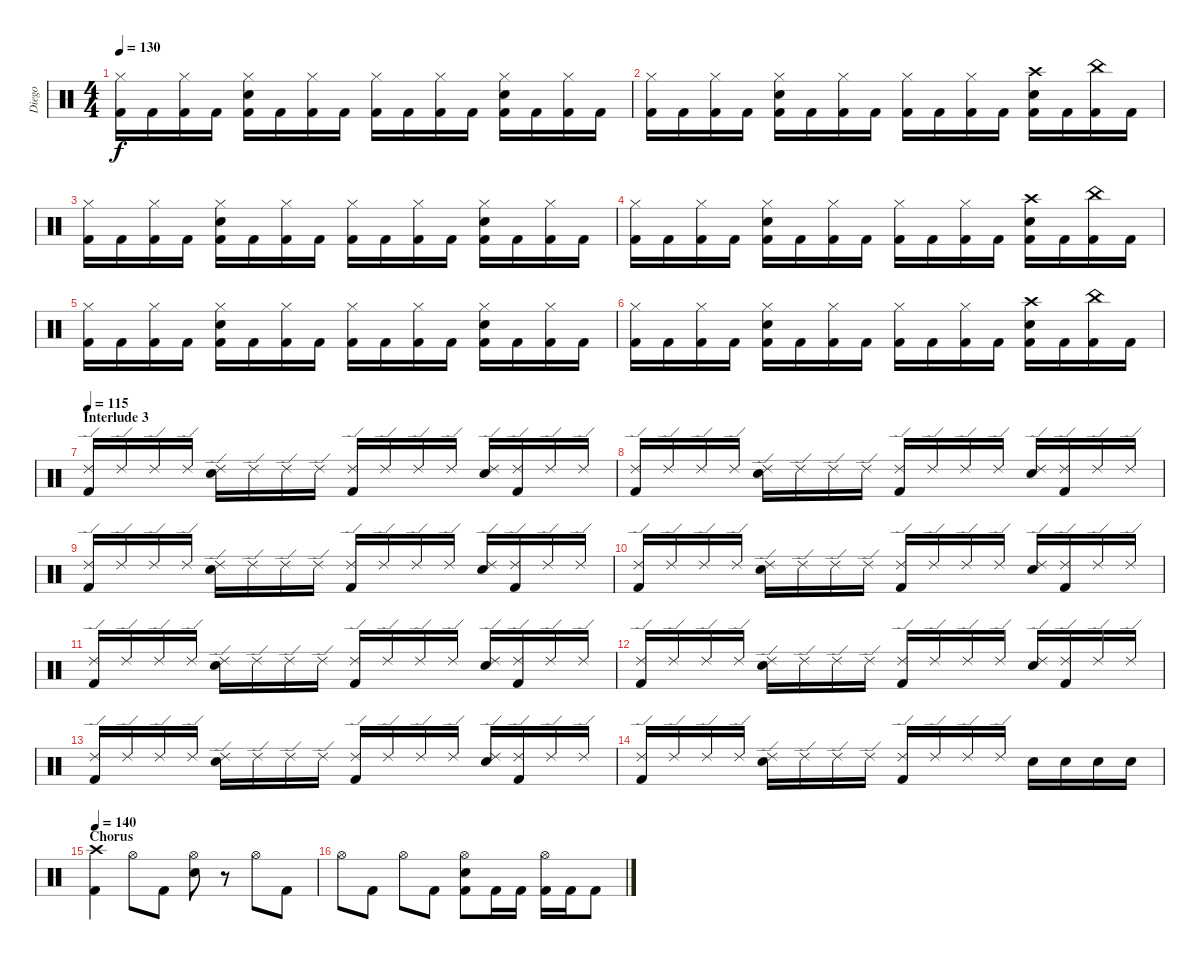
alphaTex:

\track ("Diego" "Diego") {instrument percussion}
\staff {score}
\articulation defaults
\ts (4 4)
\tempo 130
\clef neutral
\ks c
("Hi-Hat (closed)" "Kick (hit) 2").16{dy f} "Kick (hit) 2".16 ("Hi-Hat (closed)" "Kick (hit) 2").16 "Kick (hit) 2".16 ("Hi-Hat (closed)" "Snare (hit) 2" "Kick (hit) 2").16 "Kick (hit) 2".16 ("Hi-Hat (closed)" "Kick (hit) 2").16 "Kick (hit) 2".16 ("Hi-Hat (closed)" "Kick (hit) 2").16 "Kick (hit) 2".16 ("Hi-Hat (closed)" "Kick (hit) 2").16 "Kick (hit) 2".16 ("Hi-Hat (closed)" "Snare (hit) 2" "Kick (hit) 2").16 "Kick (hit) 2".16 ("Hi-Hat (closed)" "Kick (hit) 2").16 "Kick (hit) 2".16 |
("Hi-Hat (closed)" "Kick (hit) 2").16 "Kick (hit) 2".16 ("Hi-Hat (closed)" "Kick (hit) 2").16 "Kick (hit) 2".16 ("Hi-Hat (closed)" "Snare (hit) 2" "Kick (hit) 2").16 "Kick (hit) 2".16 ("Hi-Hat (closed)" "Kick (hit) 2").16 "Kick (hit) 2".16 ("Hi-Hat (closed)" "Kick (hit) 2").16 "Kick (hit) 2".16 ("Hi-Hat (closed)" "Kick (hit) 2").16 "Kick (hit) 2".16 ("Crash high (hit)" "Snare (hit) 2" "Kick (hit) 2").16 "Kick (hit) 2".16 ("China (hit)" "Kick (hit) 2").16 "Kick (hit) 2".16 |
("Hi-Hat (closed)" "Kick (hit) 2").16 "Kick (hit) 2".16 ("Hi-Hat (closed)" "Kick (hit) 2").16 "Kick (hit) 2".16 ("Hi-Hat (closed)" "Snare (hit) 2" "Kick (hit) 2").16 "Kick (hit) 2".16 ("Hi-Hat (closed)" "Kick (hit) 2").16 "Kick (hit) 2".16 ("Hi-Hat (closed)" "Kick (hit) 2").16 "Kick (hit) 2".16 ("Hi-Hat (closed)" "Kick (hit) 2").16 "Kick (hit) 2".16 ("Hi-Hat (closed)" "Snare (hit) 2" "Kick (hit) 2").16 "Kick (hit) 2".16 ("Hi-Hat (closed)" "Kick (hit) 2").16 "Kick (hit) 2".16 |
("Hi-Hat (closed)" "Kick (hit) 2").16 "Kick (hit) 2".16 ("Hi-Hat (closed)" "Kick (hit) 2").16 "Kick (hit) 2".16 ("Hi-Hat (closed)" "Snare (hit) 2" "Kick (hit) 2").16 "Kick (hit) 2".16 ("Hi-Hat (closed)" "Kick (hit) 2").16 "Kick (hit) 2".16 ("Hi-Hat (closed)" "Kick (hit) 2").16 "Kick (hit) 2".16 ("Hi-Hat (closed)" "Kick (hit) 2").16 "Kick (hit) 2".16 ("Crash high (hit)" "Snare (hit) 2" "Kick (hit) 2").16 "Kick (hit) 2".16 ("China (hit)" "Kick (hit) 2").16 "Kick (hit) 2".16 |
("Hi-Hat (closed)" "Kick (hit) 2").16 "Kick (hit) 2".16 ("Hi-Hat (closed)" "Kick (hit) 2").16 "Kick (hit) 2".16 ("Hi-Hat (closed)" "Snare (hit) 2" "Kick (hit) 2").16 "Kick (hit) 2".16 ("Hi-Hat (closed)" "Kick (hit) 2").16 "Kick (hit) 2".16 ("Hi-Hat (closed)" "Kick (hit) 2").16 "Kick (hit) 2".16 ("Hi-Hat (closed)" "Kick (hit) 2").16 "Kick (hit) 2".16 ("Hi-Hat (closed)" "Snare (hit) 2" "Kick (hit) 2").16 "Kick (hit) 2".16 ("Hi-Hat (closed)" "Kick (hit) 2").16 "Kick (hit) 2".16 |
("Hi-Hat (closed)" "Kick (hit) 2").16 "Kick (hit) 2".16 ("Hi-Hat (closed)" "Kick (hit) 2").16 "Kick (hit) 2".16 ("Hi-Hat (closed)" "Snare (hit) 2" "Kick (hit) 2").16 "Kick (hit) 2".16 ("Hi-Hat (closed)" "Kick (hit) 2").16 "Kick (hit) 2".16 ("Hi-Hat (closed)" "Kick (hit) 2").16 "Kick (hit) 2".16 ("Hi-Hat (closed)" "Kick (hit) 2").16 "Kick (hit) 2".16 ("Crash high (hit)" "Snare (hit) 2" "Kick (hit) 2").16 "Kick (hit) 2".16 ("China (hit)" "Kick (hit) 2").16 "Kick (hit) 2".16 |
\section ("" "Interlude 3")
\tempo 115
("Ride (edge) 2" "Kick (hit) 2").16 "Ride (edge) 2".16 "Ride (edge) 2".16 "Ride (edge) 2".16 ("Ride (edge) 2" "Snare (hit) 2").16 "Ride (edge) 2".16 "Ride (edge) 2".16 "Ride (edge) 2".16 ("Ride (edge) 2" "Kick (hit) 2").16 "Ride (edge) 2".16 "Ride (edge) 2".16 "Ride (edge) 2".16 ("Ride (edge) 2" "Snare (hit) 2").16 ("Ride (edge) 2" "Kick (hit) 2").16 "Ride (edge) 2".16 "Ride (edge) 2".16 |
("Ride (edge) 2" "Kick (hit) 2").16 "Ride (edge) 2".16 "Ride (edge) 2".16 "Ride (edge) 2".16 ("Ride (edge) 2" "Snare (hit) 2").16 "Ride (edge) 2".16 "Ride (edge) 2".16 "Ride (edge) 2".16 ("Ride (edge) 2" "Kick (hit) 2").16 "Ride (edge) 2".16 "Ride (edge) 2".16 "Ride (edge) 2".16 ("Ride (edge) 2" "Snare (hit) 2").16 ("Ride (edge) 2" "Kick (hit) 2").16 "Ride (edge) 2".16 "Ride (edge) 2".16 |
("Ride (edge) 2" "Kick (hit) 2").16 "Ride (edge) 2".16 "Ride (edge) 2".16 "Ride (edge) 2".16 ("Ride (edge) 2" "Snare (hit) 2").16 "Ride (edge) 2".16 "Ride (edge) 2".16 "Ride (edge) 2".16 ("Ride (edge) 2" "Kick (hit) 2").16 "Ride (edge) 2".16 "Ride (edge) 2".16 "Ride (edge) 2".16 ("Ride (edge) 2" "Snare (hit) 2").16 ("Ride (edge) 2" "Kick (hit) 2").16 "Ride (edge) 2".16 "Ride (edge) 2".16 |
("Ride (edge) 2" "Kick (hit) 2").16 "Ride (edge) 2".16 "Ride (edge) 2".16 "Ride (edge) 2".16 ("Ride (edge) 2" "Snare (hit) 2").16 "Ride (edge) 2".16 "Ride (edge) 2".16 "Ride (edge) 2".16 ("Ride (edge) 2" "Kick (hit) 2").16 "Ride (edge) 2".16 "Ride (edge) 2".16 "Ride (edge) 2".16 ("Ride (edge) 2" "Snare (hit) 2").16 ("Ride (edge) 2" "Kick (hit) 2").16 "Ride (edge) 2".16 "Ride (edge) 2".16 |
("Ride (edge) 2" "Kick (hit) 2").16 "Ride (edge) 2".16 "Ride (edge) 2".16 "Ride (edge) 2".16 ("Ride (edge) 2" "Snare (hit) 2").16 "Ride (edge) 2".16 "Ride (edge) 2".16 "Ride (edge) 2".16 ("Ride (edge) 2" "Kick (hit) 2").16 "Ride (edge) 2".16 "Ride (edge) 2".16 "Ride (edge) 2".16 ("Ride (edge) 2" "Snare (hit) 2").16 ("Ride (edge) 2" "Kick (hit) 2").16 "Ride (edge) 2".16 "Ride (edge) 2".16 |
("Ride (edge) 2" "Kick (hit) 2").16 "Ride (edge) 2".16 "Ride (edge) 2".16 "Ride (edge) 2".16 ("Ride (edge) 2" "Snare (hit) 2").16 "Ride (edge) 2".16 "Ride (edge) 2".16 "Ride (edge) 2".16 ("Ride (edge) 2" "Kick (hit) 2").16 "Ride (edge) 2".16 "Ride (edge) 2".16 "Ride (edge) 2".16 ("Ride (edge) 2" "Snare (hit) 2").16 ("Ride (edge) 2" "Kick (hit) 2").16 "Ride (edge) 2".16 "Ride (edge) 2".16 |
("Ride (edge) 2" "Kick (hit) 2").16 "Ride (edge) 2".16 "Ride (edge) 2".16 "Ride (edge) 2".16 ("Ride (edge) 2" "Snare (hit) 2").16 "Ride (edge) 2".16 "Ride (edge) 2".16 "Ride (edge) 2".16 ("Ride (edge) 2" "Kick (hit) 2").16 "Ride (edge) 2".16 "Ride (edge) 2".16 "Ride (edge) 2".16 ("Ride (edge) 2" "Snare (hit) 2").16 ("Ride (edge) 2" "Kick (hit) 2").16 "Ride (edge) 2".16 "Ride (edge) 2".16 |
("Ride (edge) 2" "Kick (hit) 2").16 "Ride (edge) 2".16 "Ride (edge) 2".16 "Ride (edge) 2".16 ("Ride (edge) 2" "Snare (hit) 2").16 "Ride (edge) 2".16 "Ride (edge) 2".16 "Ride (edge) 2".16 ("Ride (edge) 2" "Kick (hit) 2").16 "Ride (edge) 2".16 "Ride (edge) 2".16 "Ride (edge) 2".16 "Snare (hit) 2".16 "Snare (hit) 2".16 "Snare (hit) 2".16 "Snare (hit) 2".16 |
\section ("" "Chorus")
\tempo 140
("Crash high (hit)" "Kick (hit) 2").4 "Hi-Hat (open)".8 "Kick (hit) 2".8 ("Hi-Hat (open)" "Snare (hit) 2").8 r.8 "Hi-Hat (open)".8 "Kick (hit) 2".8 |
"Hi-Hat (open)".8 "Kick (hit) 2".8 "Hi-Hat (open)".8 "Kick (hit) 2".8 ("Hi-Hat (open)" "Snare (hit) 2" "Kick (hit) 2").8 "Kick (hit) 2".16 "Kick (hit) 2".16 ("Hi-Hat (open)" "Kick (hit) 2").16 "Kick (hit) 2".16 "Kick (hit) 2".8
